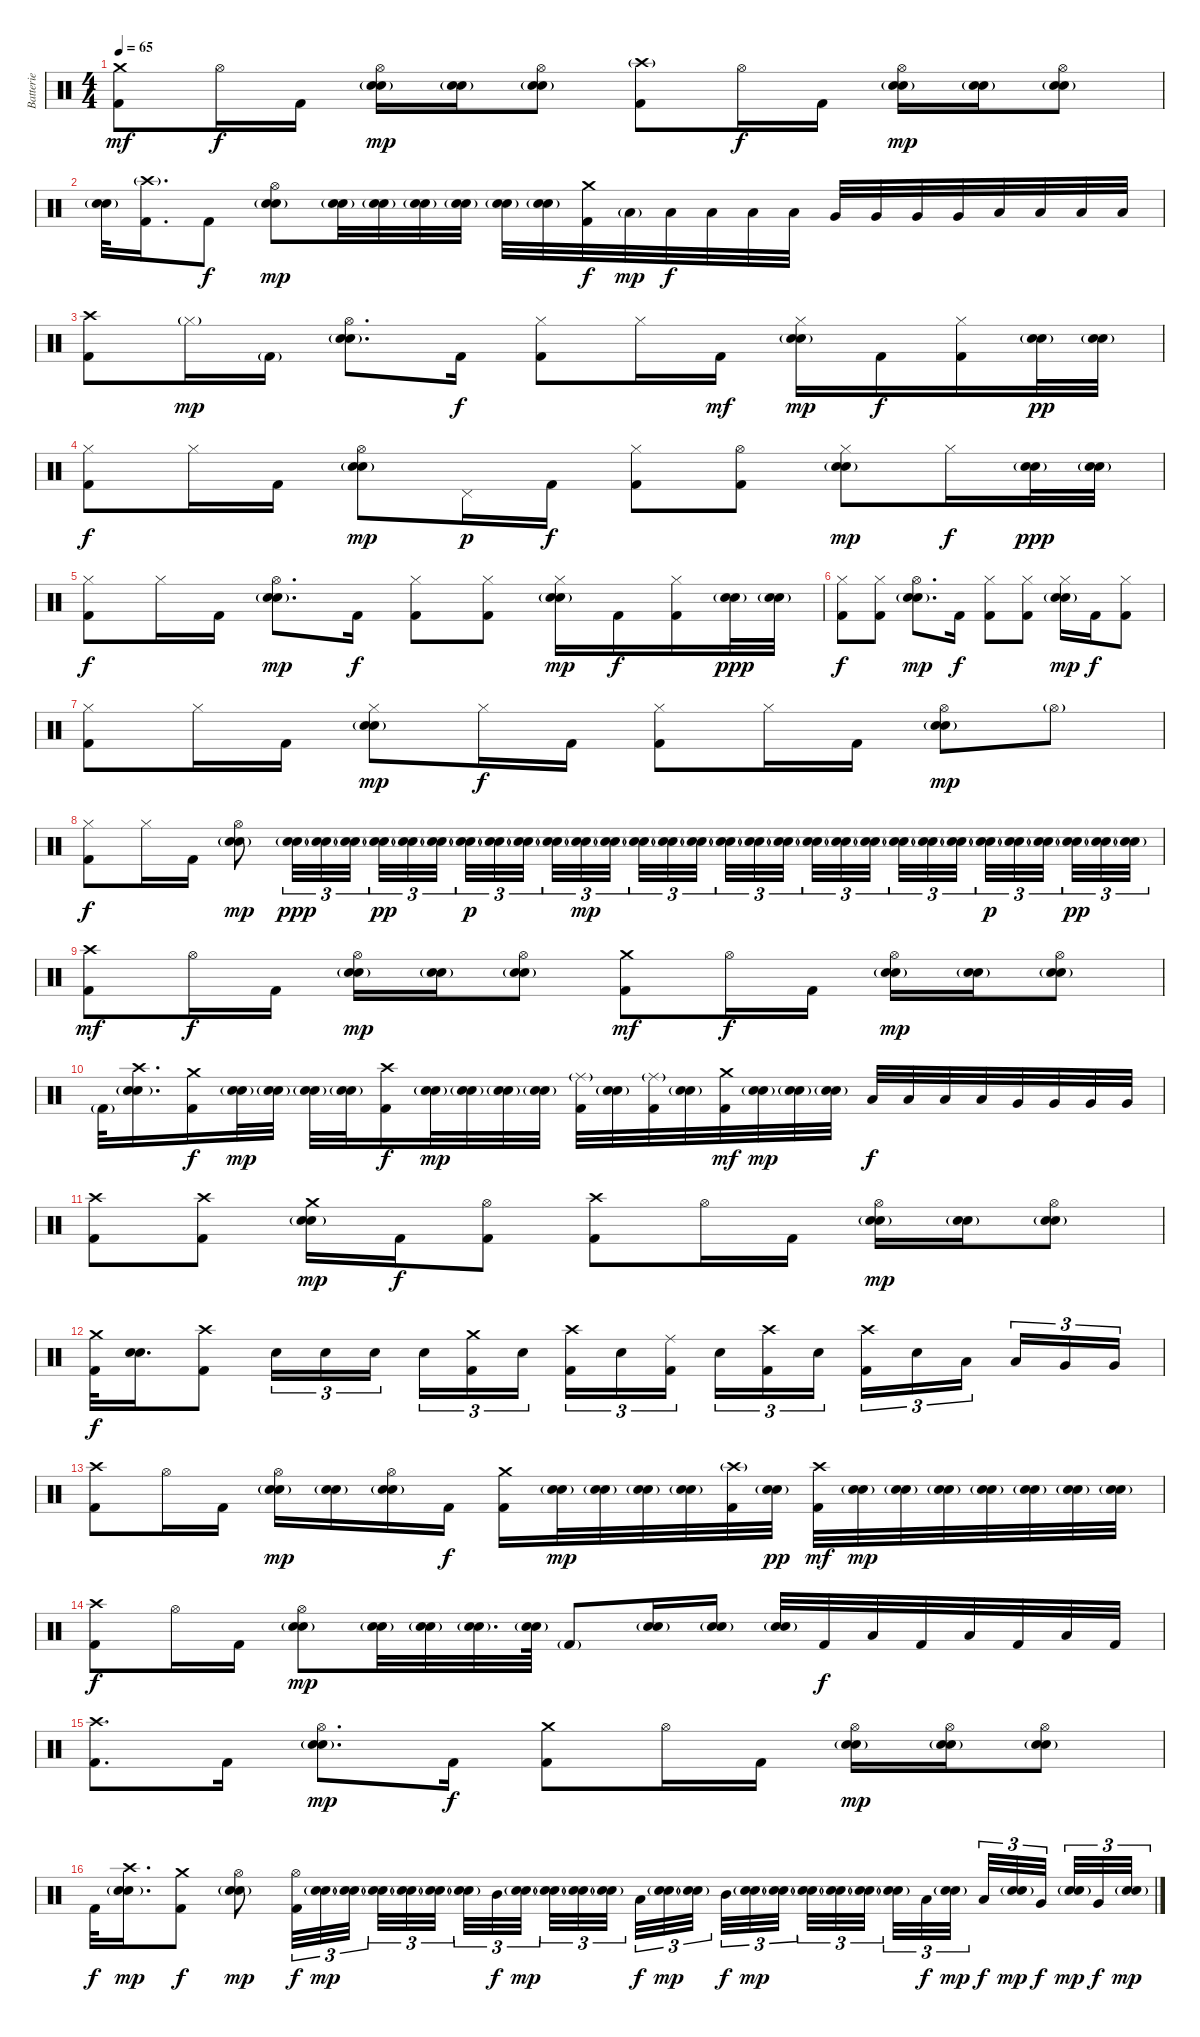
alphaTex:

\track ("Batterie" "Batterie") {instrument percussion}
\staff {score}
\articulation defaults
\ts (4 4)
\tempo 65
\clef neutral
\ks c
("Crash medium (hit)" "Kick (hit) 2").8{dy mf} "Hi-Hat (open)".16{dy f} "Kick (hit) 2".16 ("Hi-Hat (open)" "Electric Snare (hit)" "Snare (hit) 2"{g}).16{dy mp} ("Electric Snare (hit)" "Snare (hit) 2"{g}).16 ("Hi-Hat (open)" "Electric Snare (hit)" "Snare (hit) 2"{g}).8 ("Crash high (hit)"{g} "Kick (hit) 2").8 "Hi-Hat (open)".16{dy f} "Kick (hit) 2".16 ("Hi-Hat (open)" "Electric Snare (hit)" "Snare (hit) 2"{g}).16{dy mp} ("Electric Snare (hit)" "Snare (hit) 2"{g}).16 ("Hi-Hat (open)" "Electric Snare (hit)" "Snare (hit) 2"{g}).8 |
("Electric Snare (hit)" "Snare (hit) 2"{g}).32 ("Crash high (hit)"{g} "Kick (hit) 2").16{d} "Kick (hit) 2".8{dy f} ("Hi-Hat (open)" "Electric Snare (hit)" "Snare (hit) 2"{g}).8{dy mp} ("Electric Snare (hit)" "Snare (hit) 2"{g}).32 ("Electric Snare (hit)" "Snare (hit) 2"{g}).32 ("Electric Snare (hit)" "Snare (hit) 2"{g}).32 ("Electric Snare (hit)" "Snare (hit) 2"{g}).32 ("Electric Snare (hit)" "Snare (hit) 2"{g}).32 ("Electric Snare (hit)" "Snare (hit) 2"{g}).32 ("Crash medium (hit)" "Kick (hit) 2").32{dy f} "Low Tom (hit)"{g}.32{dy mp} "Low Tom (hit)".32{dy f} "Low Tom (hit)".32 "Low Tom (hit)".32 "Low Tom (hit)".32 "Very Low Tom (hit)".32 "Very Low Tom (hit)".32 "Very Low Tom (hit)".32 "Very Low Tom (hit)".32 "Low Floor Tom (hit)".32 "Low Floor Tom (hit)".32 "Low Floor Tom (hit)".32 "Low Floor Tom (hit)".32 |
("Crash high (hit)" "Kick (hit) 2").8 "Hi-Hat (closed)"{g}.16{dy mp} "Kick (hit) 2"{g}.16 ("Hi-Hat (open)" "Electric Snare (hit)" "Snare (hit) 2"{g}).8{d} "Kick (hit) 2".16{dy f} ("Hi-Hat (closed)" "Kick (hit) 2").8 "Hi-Hat (closed)".16 "Kick (hit) 2".16{dy mf} ("Hi-Hat (closed)" "Electric Snare (hit)" "Snare (hit) 2"{g}).16{dy mp} "Kick (hit) 2".16{dy f} ("Hi-Hat (closed)" "Kick (hit) 2").16 ("Electric Snare (hit)"{g} "Snare (hit) 2"{g}).32{dy pp} ("Electric Snare (hit)"{g} "Snare (hit) 2"{g}).32 |
("Hi-Hat (closed)" "Kick (hit) 2").8{dy f} "Hi-Hat (closed)".16 "Kick (hit) 2".16 ("Hi-Hat (open)" "Electric Snare (hit)" "Snare (hit) 2"{g}).8{dy mp} "Pedal Hi-Hat (hit)".16{dy p} "Kick (hit) 2".16{dy f} ("Hi-Hat (closed)" "Kick (hit) 2").8 ("Hi-Hat (open)" "Kick (hit) 2").8 ("Hi-Hat (closed)" "Electric Snare (hit)" "Snare (hit) 2"{g}).8{dy mp} "Hi-Hat (closed)".16{dy f} ("Electric Snare (hit)"{g} "Snare (hit) 2"{g}).32{dy ppp} ("Electric Snare (hit)"{g} "Snare (hit) 2"{g}).32 |
("Hi-Hat (closed)" "Kick (hit) 2").8{dy f} "Hi-Hat (closed)".16 "Kick (hit) 2".16 ("Hi-Hat (open)" "Electric Snare (hit)" "Snare (hit) 2"{g}).8{d dy mp} "Kick (hit) 2".16{dy f} ("Hi-Hat (closed)" "Kick (hit) 2").8 ("Hi-Hat (closed)" "Kick (hit) 2").8 ("Hi-Hat (closed)" "Electric Snare (hit)" "Snare (hit) 2"{g}).16{dy mp} "Kick (hit) 2".16{dy f} ("Hi-Hat (closed)" "Kick (hit) 2").16 ("Electric Snare (hit)"{g} "Snare (hit) 2"{g}).32{dy ppp} ("Electric Snare (hit)"{g} "Snare (hit) 2"{g}).32 |
("Hi-Hat (closed)" "Kick (hit) 2").8{dy f} ("Hi-Hat (closed)" "Kick (hit) 2").8 ("Hi-Hat (open)" "Electric Snare (hit)" "Snare (hit) 2"{g}).8{d dy mp} "Kick (hit) 2".16{dy f} ("Hi-Hat (closed)" "Kick (hit) 2").8 ("Hi-Hat (closed)" "Kick (hit) 2").8 ("Hi-Hat (closed)" "Electric Snare (hit)" "Snare (hit) 2"{g}).16{dy mp} "Kick (hit) 2".16{dy f} ("Hi-Hat (closed)" "Kick (hit) 2").8 |
("Hi-Hat (closed)" "Kick (hit) 2").8 "Hi-Hat (closed)".16 "Kick (hit) 2".16 ("Hi-Hat (closed)" "Electric Snare (hit)" "Snare (hit) 2"{g}).8{dy mp} "Hi-Hat (closed)".16{dy f} "Kick (hit) 2".16 ("Hi-Hat (closed)" "Kick (hit) 2").8 "Hi-Hat (closed)".16 "Kick (hit) 2".16 ("Hi-Hat (open)" "Electric Snare (hit)" "Snare (hit) 2"{g}).8{dy mp} "Hi-Hat (open)"{g}.8 |
("Hi-Hat (closed)" "Kick (hit) 2").8{dy f} "Hi-Hat (closed)".16 "Kick (hit) 2".16 ("Hi-Hat (open)" "Electric Snare (hit)" "Snare (hit) 2"{g}).8{dy mp} ("Electric Snare (hit)"{g} "Snare (hit) 2"{g}).32{tu (3 2) dy ppp} ("Electric Snare (hit)"{g} "Snare (hit) 2"{g}).32{tu (3 2)} ("Electric Snare (hit)"{g} "Snare (hit) 2"{g}).32{tu (3 2)} ("Electric Snare (hit)"{g} "Snare (hit) 2"{g}).32{tu (3 2) dy pp} ("Electric Snare (hit)"{g} "Snare (hit) 2"{g}).32{tu (3 2)} ("Electric Snare (hit)"{g} "Snare (hit) 2"{g}).32{tu (3 2)} ("Electric Snare (hit)" "Snare (hit) 2"{g}).32{tu (3 2) dy p} ("Electric Snare (hit)" "Snare (hit) 2"{g}).32{tu (3 2)} ("Electric Snare (hit)" "Snare (hit) 2"{g}).32{tu (3 2)} ("Electric Snare (hit)" "Snare (hit) 2"{g}).32{tu (3 2)} ("Electric Snare (hit)" "Snare (hit) 2"{g}).32{tu (3 2) dy mp} ("Electric Snare (hit)" "Snare (hit) 2"{g}).32{tu (3 2)} ("Electric Snare (hit)" "Snare (hit) 2"{g}).32{tu (3 2)} ("Electric Snare (hit)" "Snare (hit) 2"{g}).32{tu (3 2)} ("Electric Snare (hit)" "Snare (hit) 2"{g}).32{tu (3 2)} ("Electric Snare (hit)" "Snare (hit) 2"{g}).32{tu (3 2)} ("Electric Snare (hit)" "Snare (hit) 2"{g}).32{tu (3 2)} ("Electric Snare (hit)" "Snare (hit) 2"{g}).32{tu (3 2)} ("Electric Snare (hit)" "Snare (hit) 2"{g}).32{tu (3 2)} ("Electric Snare (hit)" "Snare (hit) 2"{g}).32{tu (3 2)} ("Electric Snare (hit)" "Snare (hit) 2"{g}).32{tu (3 2)} ("Electric Snare (hit)" "Snare (hit) 2"{g}).32{tu (3 2)} ("Electric Snare (hit)" "Snare (hit) 2"{g}).32{tu (3 2)} ("Electric Snare (hit)" "Snare (hit) 2"{g}).32{tu (3 2)} ("Electric Snare (hit)" "Snare (hit) 2"{g}).32{tu (3 2) dy p} ("Electric Snare (hit)" "Snare (hit) 2"{g}).32{tu (3 2)} ("Electric Snare (hit)" "Snare (hit) 2"{g}).32{tu (3 2)} ("Electric Snare (hit)"{g} "Snare (hit) 2"{g}).32{tu (3 2) dy pp} ("Electric Snare (hit)"{g} "Snare (hit) 2"{g}).32{tu (3 2)} ("Electric Snare (hit)"{g} "Snare (hit) 2"{g}).32{tu (3 2)} |
("Crash high (hit)" "Kick (hit) 2").8{dy mf} "Hi-Hat (open)".16{dy f} "Kick (hit) 2".16 ("Hi-Hat (open)" "Electric Snare (hit)" "Snare (hit) 2"{g}).16{dy mp} ("Electric Snare (hit)" "Snare (hit) 2"{g}).16 ("Hi-Hat (open)" "Electric Snare (hit)" "Snare (hit) 2"{g}).8 ("Crash medium (hit)" "Kick (hit) 2").8{dy mf} "Hi-Hat (open)".16{dy f} "Kick (hit) 2".16 ("Hi-Hat (open)" "Electric Snare (hit)" "Snare (hit) 2"{g}).16{dy mp} ("Electric Snare (hit)" "Snare (hit) 2"{g}).16 ("Hi-Hat (open)" "Electric Snare (hit)" "Snare (hit) 2"{g}).8 |
"Kick (hit) 2"{g}.32 ("Crash high (hit)" "Electric Snare (hit)" "Snare (hit) 2"{g}).16{d} ("Crash medium (hit)" "Kick (hit) 2").16{dy f} ("Electric Snare (hit)" "Snare (hit) 2"{g}).32{dy mp} ("Electric Snare (hit)" "Snare (hit) 2"{g}).32 ("Electric Snare (hit)" "Snare (hit) 2"{g}).32 ("Electric Snare (hit)" "Snare (hit) 2"{g}).32 ("Crash high (hit)" "Kick (hit) 2").16{dy f} ("Electric Snare (hit)" "Snare (hit) 2"{g}).32{dy mp} ("Electric Snare (hit)" "Snare (hit) 2"{g}).32 ("Electric Snare (hit)" "Snare (hit) 2"{g}).32 ("Electric Snare (hit)" "Snare (hit) 2"{g}).32 ("Ride (middle)"{g} "Kick (hit) 2").32 ("Electric Snare (hit)" "Snare (hit) 2"{g}).32 ("Ride (middle)"{g} "Kick (hit) 2").32 ("Electric Snare (hit)" "Snare (hit) 2"{g}).32 ("Crash medium (hit)" "Kick (hit) 2").32{dy mf} ("Electric Snare (hit)" "Snare (hit) 2"{g}).32{dy mp} ("Electric Snare (hit)" "Snare (hit) 2"{g}).32 ("Electric Snare (hit)" "Snare (hit) 2"{g}).32 "Low Tom (hit)".32{dy f} "Low Tom (hit)".32 "Low Tom (hit)".32 "Low Tom (hit)".32 "Very Low Tom (hit)".32 "Very Low Tom (hit)".32 "Very Low Tom (hit)".32 "Very Low Tom (hit)".32 |
("Crash high (hit)" "Kick (hit) 2").8 ("Crash high (hit)" "Kick (hit) 2").8 ("Crash medium (hit)" "Electric Snare (hit)" "Snare (hit) 2"{g}).16{dy mp} "Kick (hit) 2".16{dy f} ("Hi-Hat (open)" "Kick (hit) 2").8 ("Crash high (hit)" "Kick (hit) 2").8 "Hi-Hat (open)".16 "Kick (hit) 2".16 ("Hi-Hat (open)" "Electric Snare (hit)" "Snare (hit) 2"{g}).16{dy mp} ("Electric Snare (hit)" "Snare (hit) 2"{g}).16 ("Hi-Hat (open)" "Electric Snare (hit)" "Snare (hit) 2"{g}).8 |
("Crash medium (hit)" "Kick (hit) 2").32{dy f} ("Electric Snare (hit)" "Snare (hit) 2").16{d} ("Crash high (hit)" "Kick (hit) 2").8 "Electric Snare (hit)".16{tu (3 2)} "Electric Snare (hit)".16{tu (3 2)} "Electric Snare (hit)".16{tu (3 2)} "Electric Snare (hit)".16{tu (3 2)} ("Crash medium (hit)" "Kick (hit) 2").16{tu (3 2)} "Electric Snare (hit)".16{tu (3 2)} ("Crash high (hit)" "Kick (hit) 2").16{tu (3 2)} "Electric Snare (hit)".16{tu (3 2)} ("Ride (middle)" "Kick (hit) 2").16{tu (3 2)} "Electric Snare (hit)".16{tu (3 2)} ("Crash high (hit)" "Kick (hit) 2").16{tu (3 2)} "Electric Snare (hit)".16{tu (3 2)} ("Crash high (hit)" "Kick (hit) 2").16{tu (3 2)} "Electric Snare (hit)".16{tu (3 2)} "Low Tom (hit)".16{tu (3 2)} "Low Tom (hit)".16{tu (3 2)} "Very Low Tom (hit)".16{tu (3 2)} "Very Low Tom (hit)".16{tu (3 2)} |
("Crash high (hit)" "Kick (hit) 2").8 "Hi-Hat (open)".16 "Kick (hit) 2".16 ("Hi-Hat (open)" "Electric Snare (hit)" "Snare (hit) 2"{g}).16{dy mp} ("Electric Snare (hit)" "Snare (hit) 2"{g}).16 ("Hi-Hat (open)" "Electric Snare (hit)" "Snare (hit) 2"{g}).16 "Kick (hit) 2".16{dy f} ("Crash medium (hit)" "Kick (hit) 2").16 ("Electric Snare (hit)" "Snare (hit) 2"{g}).32{dy mp} ("Electric Snare (hit)" "Snare (hit) 2"{g}).32 ("Electric Snare (hit)" "Snare (hit) 2"{g}).32 ("Electric Snare (hit)" "Snare (hit) 2"{g}).32 ("Crash high (hit)"{g} "Kick (hit) 2").32 ("Electric Snare (hit)"{g} "Snare (hit) 2"{g}).32{dy pp} ("Crash high (hit)" "Kick (hit) 2").32{dy mf} ("Electric Snare (hit)" "Snare (hit) 2"{g}).32{dy mp} ("Electric Snare (hit)" "Snare (hit) 2"{g}).32 ("Electric Snare (hit)" "Snare (hit) 2"{g}).32 ("Electric Snare (hit)" "Snare (hit) 2"{g}).32 ("Electric Snare (hit)" "Snare (hit) 2"{g}).32 ("Electric Snare (hit)" "Snare (hit) 2"{g}).32 ("Electric Snare (hit)" "Snare (hit) 2"{g}).32 |
("Crash high (hit)" "Kick (hit) 2").8{dy f} "Hi-Hat (open)".16 "Kick (hit) 2".16 ("Hi-Hat (open)" "Electric Snare (hit)" "Snare (hit) 2"{g}).8{dy mp} ("Electric Snare (hit)" "Snare (hit) 2"{g}).32 ("Electric Snare (hit)" "Snare (hit) 2"{g}).32 ("Electric Snare (hit)" "Snare (hit) 2"{g}).32{d} ("Electric Snare (hit)" "Snare (hit) 2"{g}).64 "Kick (hit) 2"{g}.8{volume 12} ("Electric Snare (hit)" "Snare (hit) 2"{g}).16 ("Electric Snare (hit)" "Snare (hit) 2"{g}).16 ("Electric Snare (hit)" "Snare (hit) 2"{g}).32 "Kick (hit) 2".32{dy f} "Low Tom (hit)".32 "Kick (hit) 2".32 "Low Tom (hit)".32 "Kick (hit) 2".32 "Low Tom (hit)".32 "Kick (hit) 2".32 |
("Crash high (hit)" "Kick (hit) 2").8{d volume 1} "Kick (hit) 2".16 ("Hi-Hat (open)" "Electric Snare (hit)" "Snare (hit) 2"{g}).8{d dy mp} "Kick (hit) 2".16{dy f} ("Crash medium (hit)" "Kick (hit) 2").8 "Hi-Hat (open)".16 "Kick (hit) 2".16 ("Hi-Hat (open)" "Electric Snare (hit)" "Snare (hit) 2"{g}).16{dy mp} ("Hi-Hat (open)" "Electric Snare (hit)" "Snare (hit) 2"{g}).16 ("Hi-Hat (open)" "Electric Snare (hit)" "Snare (hit) 2"{g}).8 |
"Kick (hit) 2".32{dy f} ("Crash high (hit)" "Electric Snare (hit)" "Snare (hit) 2"{g}).16{d dy mp} ("Crash medium (hit)" "Kick (hit) 2").8{dy f} ("Hi-Hat (open)" "Electric Snare (hit)" "Snare (hit) 2"{g}).8{dy mp} ("Hi-Hat (open)" "Kick (hit) 2").32{tu (3 2) dy f} ("Electric Snare (hit)" "Snare (hit) 2"{g}).32{tu (3 2) dy mp} ("Electric Snare (hit)" "Snare (hit) 2"{g}).32{tu (3 2)} ("Electric Snare (hit)" "Snare (hit) 2"{g}).32{tu (3 2)} ("Electric Snare (hit)" "Snare (hit) 2"{g}).32{tu (3 2)} ("Electric Snare (hit)" "Snare (hit) 2"{g}).32{tu (3 2)} ("Electric Snare (hit)" "Snare (hit) 2"{g}).32{tu (3 2)} "Mid Tom (hit)".32{tu (3 2) dy f} ("Electric Snare (hit)" "Snare (hit) 2"{g}).32{tu (3 2) dy mp} ("Electric Snare (hit)" "Snare (hit) 2"{g}).32{tu (3 2)} ("Electric Snare (hit)" "Snare (hit) 2"{g}).32{tu (3 2)} ("Electric Snare (hit)" "Snare (hit) 2"{g}).32{tu (3 2)} "Low Tom (hit)".32{tu (3 2) dy f} ("Electric Snare (hit)" "Snare (hit) 2"{g}).32{tu (3 2) dy mp} ("Electric Snare (hit)" "Snare (hit) 2"{g}).32{tu (3 2)} "Mid Tom (hit)".32{tu (3 2) dy f} ("Electric Snare (hit)" "Snare (hit) 2"{g}).32{tu (3 2) dy mp} ("Electric Snare (hit)" "Snare (hit) 2"{g}).32{tu (3 2)} ("Electric Snare (hit)" "Snare (hit) 2"{g}).32{tu (3 2)} ("Electric Snare (hit)" "Snare (hit) 2"{g}).32{tu (3 2)} ("Electric Snare (hit)" "Snare (hit) 2"{g}).32{tu (3 2)} ("Electric Snare (hit)" "Snare (hit) 2"{g}).32{tu (3 2)} "Low Tom (hit)".32{tu (3 2) dy f} ("Electric Snare (hit)" "Snare (hit) 2"{g}).32{tu (3 2) dy mp} "Low Tom (hit)".32{tu (3 2) dy f} ("Electric Snare (hit)" "Snare (hit) 2"{g}).32{tu (3 2) dy mp} "Very Low Tom (hit)".32{tu (3 2) dy f} ("Electric Snare (hit)" "Snare (hit) 2"{g}).32{tu (3 2) dy mp} "Very Low Tom (hit)".32{tu (3 2) dy f} ("Electric Snare (hit)" "Snare (hit) 2"{g}).32{tu (3 2) dy mp}
